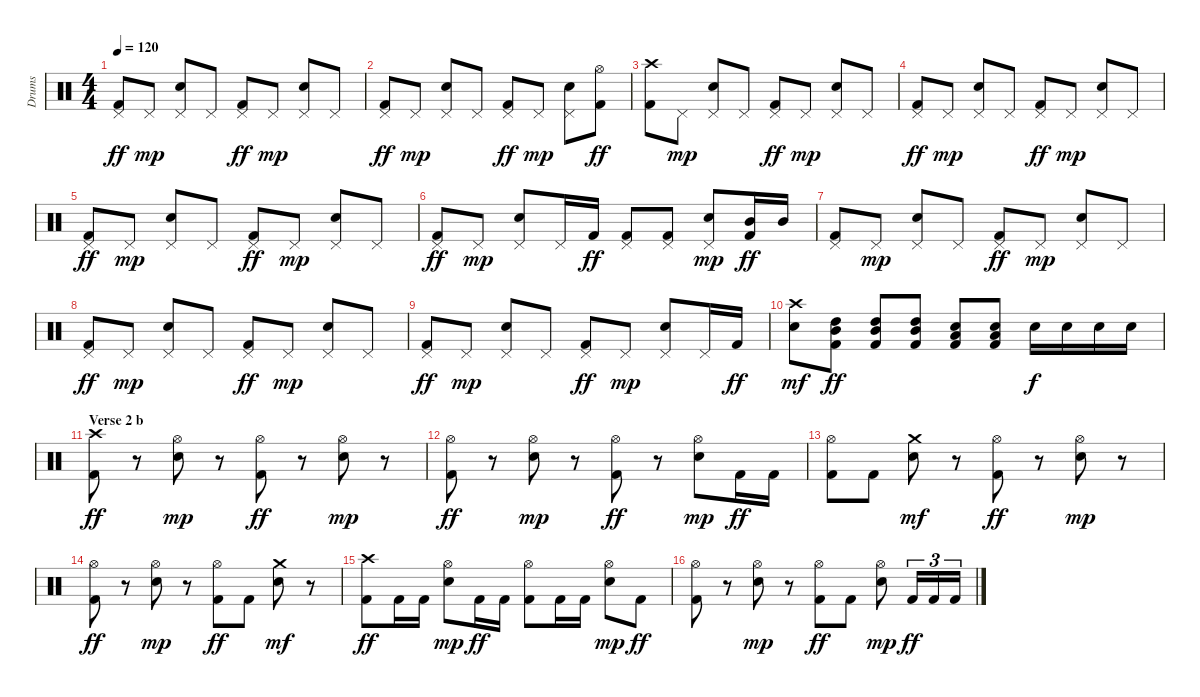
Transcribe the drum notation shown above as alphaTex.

\track ("Drums" "Drums") {instrument percussion}
\staff {score}
\articulation defaults
\ts (4 4)
\tempo 120
\clef neutral
\ks c
("Pedal Hi-Hat (hit)" "Kick (hit) 2").8{dy ff} "Pedal Hi-Hat (hit)".8{dy mp} ("Pedal Hi-Hat (hit)" "Electric Snare (hit)").8 "Pedal Hi-Hat (hit)".8 ("Pedal Hi-Hat (hit)" "Kick (hit) 2").8{dy ff} "Pedal Hi-Hat (hit)".8{dy mp} ("Pedal Hi-Hat (hit)" "Electric Snare (hit)").8 "Pedal Hi-Hat (hit)".8 |
("Pedal Hi-Hat (hit)" "Kick (hit) 2").8{dy ff} "Pedal Hi-Hat (hit)".8{dy mp} ("Pedal Hi-Hat (hit)" "Electric Snare (hit)").8 "Pedal Hi-Hat (hit)".8 ("Pedal Hi-Hat (hit)" "Kick (hit) 2").8{dy ff} "Pedal Hi-Hat (hit)".8{dy mp} ("Pedal Hi-Hat (hit)" "Electric Snare (hit)").8 ("Hi-Hat (open)" "Kick (hit) 2").8{dy ff} |
("Crash high (hit)" "Kick (hit) 2").8 "Pedal Hi-Hat (hit)".8{dy mp} ("Pedal Hi-Hat (hit)" "Electric Snare (hit)").8 "Pedal Hi-Hat (hit)".8 ("Pedal Hi-Hat (hit)" "Kick (hit) 2").8{dy ff} "Pedal Hi-Hat (hit)".8{dy mp} ("Pedal Hi-Hat (hit)" "Electric Snare (hit)").8 "Pedal Hi-Hat (hit)".8 |
("Pedal Hi-Hat (hit)" "Kick (hit) 2").8{dy ff} "Pedal Hi-Hat (hit)".8{dy mp} ("Pedal Hi-Hat (hit)" "Electric Snare (hit)").8 "Pedal Hi-Hat (hit)".8 ("Pedal Hi-Hat (hit)" "Kick (hit) 2").8{dy ff} "Pedal Hi-Hat (hit)".8{dy mp} ("Pedal Hi-Hat (hit)" "Electric Snare (hit)").8 "Pedal Hi-Hat (hit)".8 |
("Pedal Hi-Hat (hit)" "Kick (hit) 2").8{dy ff} "Pedal Hi-Hat (hit)".8{dy mp} ("Pedal Hi-Hat (hit)" "Electric Snare (hit)").8 "Pedal Hi-Hat (hit)".8 ("Pedal Hi-Hat (hit)" "Kick (hit) 2").8{dy ff} "Pedal Hi-Hat (hit)".8{dy mp} ("Pedal Hi-Hat (hit)" "Electric Snare (hit)").8 "Pedal Hi-Hat (hit)".8 |
("Pedal Hi-Hat (hit)" "Kick (hit) 2").8{dy ff} "Pedal Hi-Hat (hit)".8{dy mp} ("Pedal Hi-Hat (hit)" "Electric Snare (hit)").8 "Pedal Hi-Hat (hit)".16 "Kick (hit) 2".16{dy ff} ("Pedal Hi-Hat (hit)" "Kick (hit) 2").8 ("Pedal Hi-Hat (hit)" "Kick (hit) 2").8 ("Pedal Hi-Hat (hit)" "Electric Snare (hit)").8{dy mp} ("Mid Tom (hit)" "Kick (hit) 2").16{dy ff} "Mid Tom (hit)".16 |
("Pedal Hi-Hat (hit)" "Kick (hit) 2").8 "Pedal Hi-Hat (hit)".8{dy mp} ("Pedal Hi-Hat (hit)" "Electric Snare (hit)").8 "Pedal Hi-Hat (hit)".8 ("Pedal Hi-Hat (hit)" "Kick (hit) 2").8{dy ff} "Pedal Hi-Hat (hit)".8{dy mp} ("Pedal Hi-Hat (hit)" "Electric Snare (hit)").8 "Pedal Hi-Hat (hit)".8 |
("Pedal Hi-Hat (hit)" "Kick (hit) 2").8{dy ff} "Pedal Hi-Hat (hit)".8{dy mp} ("Pedal Hi-Hat (hit)" "Electric Snare (hit)").8 "Pedal Hi-Hat (hit)".8 ("Pedal Hi-Hat (hit)" "Kick (hit) 2").8{dy ff} "Pedal Hi-Hat (hit)".8{dy mp} ("Pedal Hi-Hat (hit)" "Electric Snare (hit)").8 "Pedal Hi-Hat (hit)".8 |
("Pedal Hi-Hat (hit)" "Kick (hit) 2").8{dy ff} "Pedal Hi-Hat (hit)".8{dy mp} ("Pedal Hi-Hat (hit)" "Electric Snare (hit)").8 "Pedal Hi-Hat (hit)".8 ("Pedal Hi-Hat (hit)" "Kick (hit) 2").8{dy ff} "Pedal Hi-Hat (hit)".8{dy mp} ("Pedal Hi-Hat (hit)" "Electric Snare (hit)").8 "Pedal Hi-Hat (hit)".16 "Kick (hit) 2".16{dy ff} |
("Crash high (hit)" "Electric Snare (hit)").8{dy mf} ("High Tom (hit)" "Mid Tom (hit)" "Kick (hit) 2").8{dy ff} ("High Tom (hit)" "Mid Tom (hit)" "Kick (hit) 2").8 ("High Tom (hit)" "Mid Tom (hit)" "Kick (hit) 2").8 ("Low Tom (hit)" "Electric Snare (hit)" "Kick (hit) 2").8 ("Low Tom (hit)" "Electric Snare (hit)" "Kick (hit) 2").8 "Electric Snare (hit)".16{dy f} "Electric Snare (hit)".16 "Electric Snare (hit)".16 "Electric Snare (hit)".16 |
\section ("" "Verse 2 b")
("Crash high (hit)" "Kick (hit) 2").8{dy ff} r.8 ("Hi-Hat (open)" "Electric Snare (hit)").8{dy mp} r.8 ("Hi-Hat (open)" "Kick (hit) 2").8{dy ff} r.8 ("Hi-Hat (open)" "Electric Snare (hit)").8{dy mp} r.8 |
("Hi-Hat (open)" "Kick (hit) 2").8{dy ff} r.8 ("Hi-Hat (open)" "Electric Snare (hit)").8{dy mp} r.8 ("Hi-Hat (open)" "Kick (hit) 2").8{dy ff} r.8 ("Hi-Hat (open)" "Electric Snare (hit)").8{dy mp} "Kick (hit) 2".16{dy ff} "Kick (hit) 2".16 |
("Hi-Hat (open)" "Kick (hit) 2").8 "Kick (hit) 2".8 ("Crash medium (hit)" "Electric Snare (hit)").8{dy mf} r.8 ("Hi-Hat (open)" "Kick (hit) 2").8{dy ff} r.8 ("Hi-Hat (open)" "Electric Snare (hit)").8{dy mp} r.8 |
("Hi-Hat (open)" "Kick (hit) 2").8{dy ff} r.8 ("Hi-Hat (open)" "Electric Snare (hit)").8{dy mp} r.8 ("Hi-Hat (open)" "Kick (hit) 2").8{dy ff} "Kick (hit) 2".8 ("Crash medium (hit)" "Electric Snare (hit)").8{dy mf} r.8 |
("Crash high (hit)" "Kick (hit) 2").8{dy ff} "Kick (hit) 2".16 "Kick (hit) 2".16 ("Hi-Hat (open)" "Electric Snare (hit)").8{dy mp} "Kick (hit) 2".16{dy ff} "Kick (hit) 2".16 ("Hi-Hat (open)" "Kick (hit) 2").8 "Kick (hit) 2".16 "Kick (hit) 2".16 ("Hi-Hat (open)" "Electric Snare (hit)").8{dy mp} "Kick (hit) 2".8{dy ff} |
("Hi-Hat (open)" "Kick (hit) 2").8 r.8 ("Hi-Hat (open)" "Electric Snare (hit)").8{dy mp} r.8 ("Hi-Hat (open)" "Kick (hit) 2").8{dy ff} "Kick (hit) 2".8 ("Hi-Hat (open)" "Electric Snare (hit)").8{dy mp} "Kick (hit) 2".16{tu (3 2) dy ff} "Kick (hit) 2".16{tu (3 2)} "Kick (hit) 2".16{tu (3 2)}
